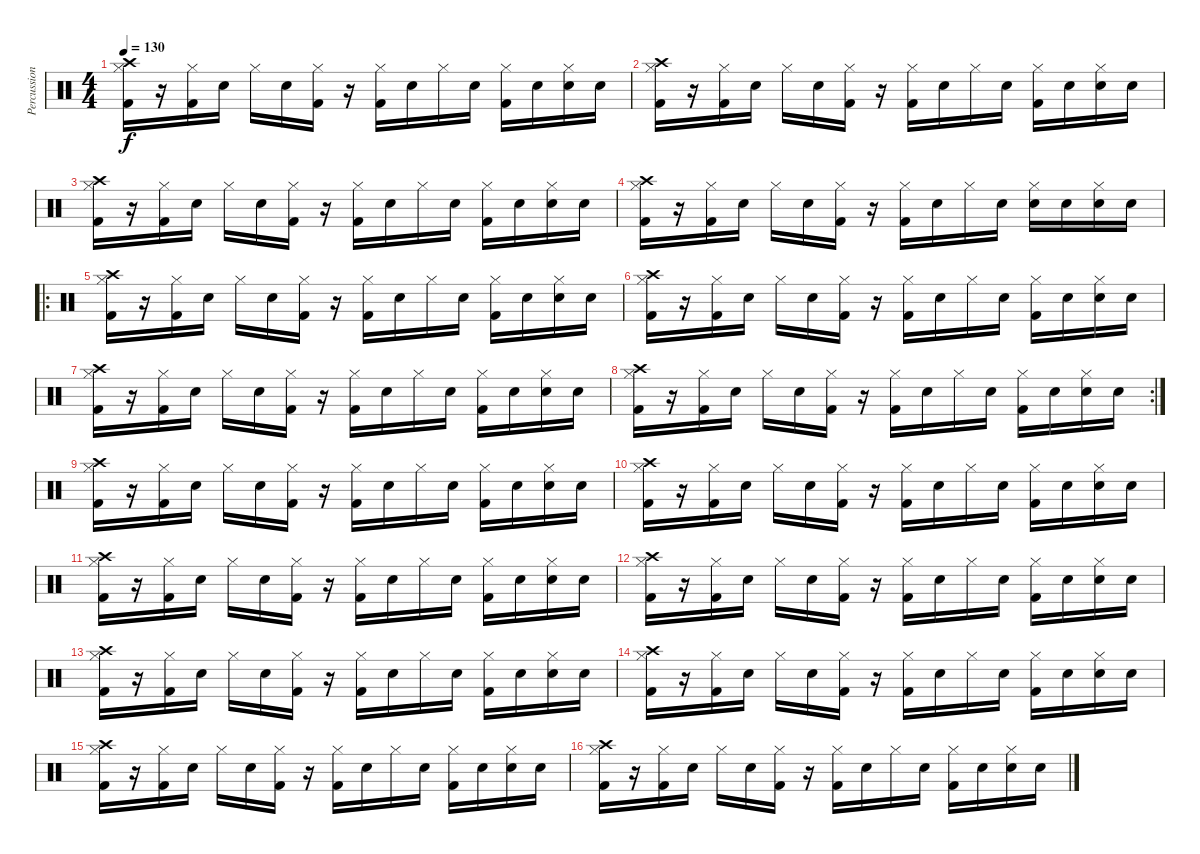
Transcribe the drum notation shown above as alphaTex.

\track ("Percussion" "Percussion") {instrument percussion}
\staff {score}
\articulation defaults
\ts (4 4)
\tempo 130
\clef neutral
\ks c
("Crash high (hit)" "Hi-Hat (closed)" "Kick (hit) 2").16{dy f} r.16 ("Hi-Hat (closed)" "Kick (hit) 2").16 "Snare (hit) 2".16 "Hi-Hat (closed)".16 "Snare (hit) 2".16 ("Hi-Hat (closed)" "Kick (hit) 2").16 r.16 ("Hi-Hat (closed)" "Kick (hit) 2").16 "Snare (hit) 2".16 "Hi-Hat (closed)".16 "Snare (hit) 2".16 ("Hi-Hat (closed)" "Kick (hit) 2").16 "Snare (hit) 2".16 ("Hi-Hat (closed)" "Snare (hit) 2").16 "Snare (hit) 2".16 |
("Crash high (hit)" "Hi-Hat (closed)" "Kick (hit) 2").16 r.16 ("Hi-Hat (closed)" "Kick (hit) 2").16 "Snare (hit) 2".16 "Hi-Hat (closed)".16 "Snare (hit) 2".16 ("Hi-Hat (closed)" "Kick (hit) 2").16 r.16 ("Hi-Hat (closed)" "Kick (hit) 2").16 "Snare (hit) 2".16 "Hi-Hat (closed)".16 "Snare (hit) 2".16 ("Hi-Hat (closed)" "Kick (hit) 2").16 "Snare (hit) 2".16 ("Hi-Hat (closed)" "Snare (hit) 2").16 "Snare (hit) 2".16 |
("Crash high (hit)" "Hi-Hat (closed)" "Kick (hit) 2").16 r.16 ("Hi-Hat (closed)" "Kick (hit) 2").16 "Snare (hit) 2".16 "Hi-Hat (closed)".16 "Snare (hit) 2".16 ("Hi-Hat (closed)" "Kick (hit) 2").16 r.16 ("Hi-Hat (closed)" "Kick (hit) 2").16 "Snare (hit) 2".16 "Hi-Hat (closed)".16 "Snare (hit) 2".16 ("Hi-Hat (closed)" "Kick (hit) 2").16 "Snare (hit) 2".16 ("Hi-Hat (closed)" "Snare (hit) 2").16 "Snare (hit) 2".16 |
("Crash high (hit)" "Hi-Hat (closed)" "Kick (hit) 2").16 r.16 ("Hi-Hat (closed)" "Kick (hit) 2").16 "Snare (hit) 2".16 "Hi-Hat (closed)".16 "Snare (hit) 2".16 ("Hi-Hat (closed)" "Kick (hit) 2").16 r.16 ("Hi-Hat (closed)" "Kick (hit) 2").16 "Snare (hit) 2".16 "Hi-Hat (closed)".16 "Snare (hit) 2".16 ("Hi-Hat (closed)" "Snare (hit) 2").16 "Snare (hit) 2".16 ("Hi-Hat (closed)" "Snare (hit) 2").16 "Snare (hit) 2".16 |
\ro
("Crash high (hit)" "Hi-Hat (closed)" "Kick (hit) 2").16 r.16 ("Hi-Hat (closed)" "Kick (hit) 2").16 "Snare (hit) 2".16 "Hi-Hat (closed)".16 "Snare (hit) 2".16 ("Hi-Hat (closed)" "Kick (hit) 2").16 r.16 ("Hi-Hat (closed)" "Kick (hit) 2").16 "Snare (hit) 2".16 "Hi-Hat (closed)".16 "Snare (hit) 2".16 ("Hi-Hat (closed)" "Kick (hit) 2").16 "Snare (hit) 2".16 ("Hi-Hat (closed)" "Snare (hit) 2").16 "Snare (hit) 2".16 |
("Crash high (hit)" "Hi-Hat (closed)" "Kick (hit) 2").16 r.16 ("Hi-Hat (closed)" "Kick (hit) 2").16 "Snare (hit) 2".16 "Hi-Hat (closed)".16 "Snare (hit) 2".16 ("Hi-Hat (closed)" "Kick (hit) 2").16 r.16 ("Hi-Hat (closed)" "Kick (hit) 2").16 "Snare (hit) 2".16 "Hi-Hat (closed)".16 "Snare (hit) 2".16 ("Hi-Hat (closed)" "Kick (hit) 2").16 "Snare (hit) 2".16 ("Hi-Hat (closed)" "Snare (hit) 2").16 "Snare (hit) 2".16 |
("Crash high (hit)" "Hi-Hat (closed)" "Kick (hit) 2").16 r.16 ("Hi-Hat (closed)" "Kick (hit) 2").16 "Snare (hit) 2".16 "Hi-Hat (closed)".16 "Snare (hit) 2".16 ("Hi-Hat (closed)" "Kick (hit) 2").16 r.16 ("Hi-Hat (closed)" "Kick (hit) 2").16 "Snare (hit) 2".16 "Hi-Hat (closed)".16 "Snare (hit) 2".16 ("Hi-Hat (closed)" "Kick (hit) 2").16 "Snare (hit) 2".16 ("Hi-Hat (closed)" "Snare (hit) 2").16 "Snare (hit) 2".16 |
\rc 2
("Crash high (hit)" "Hi-Hat (closed)" "Kick (hit) 2").16 r.16 ("Hi-Hat (closed)" "Kick (hit) 2").16 "Snare (hit) 2".16 "Hi-Hat (closed)".16 "Snare (hit) 2".16 ("Hi-Hat (closed)" "Kick (hit) 2").16 r.16 ("Hi-Hat (closed)" "Kick (hit) 2").16 "Snare (hit) 2".16 "Hi-Hat (closed)".16 "Snare (hit) 2".16 ("Hi-Hat (closed)" "Kick (hit) 2").16 "Snare (hit) 2".16 ("Hi-Hat (closed)" "Snare (hit) 2").16 "Snare (hit) 2".16 |
("Crash high (hit)" "Hi-Hat (closed)" "Kick (hit) 2").16 r.16 ("Hi-Hat (closed)" "Kick (hit) 2").16 "Snare (hit) 2".16 "Hi-Hat (closed)".16 "Snare (hit) 2".16 ("Hi-Hat (closed)" "Kick (hit) 2").16 r.16 ("Hi-Hat (closed)" "Kick (hit) 2").16 "Snare (hit) 2".16 "Hi-Hat (closed)".16 "Snare (hit) 2".16 ("Hi-Hat (closed)" "Kick (hit) 2").16 "Snare (hit) 2".16 ("Hi-Hat (closed)" "Snare (hit) 2").16 "Snare (hit) 2".16 |
("Crash high (hit)" "Hi-Hat (closed)" "Kick (hit) 2").16 r.16 ("Hi-Hat (closed)" "Kick (hit) 2").16 "Snare (hit) 2".16 "Hi-Hat (closed)".16 "Snare (hit) 2".16 ("Hi-Hat (closed)" "Kick (hit) 2").16 r.16 ("Hi-Hat (closed)" "Kick (hit) 2").16 "Snare (hit) 2".16 "Hi-Hat (closed)".16 "Snare (hit) 2".16 ("Hi-Hat (closed)" "Kick (hit) 2").16 "Snare (hit) 2".16 ("Hi-Hat (closed)" "Snare (hit) 2").16 "Snare (hit) 2".16 |
("Crash high (hit)" "Hi-Hat (closed)" "Kick (hit) 2").16 r.16 ("Hi-Hat (closed)" "Kick (hit) 2").16 "Snare (hit) 2".16 "Hi-Hat (closed)".16 "Snare (hit) 2".16 ("Hi-Hat (closed)" "Kick (hit) 2").16 r.16 ("Hi-Hat (closed)" "Kick (hit) 2").16 "Snare (hit) 2".16 "Hi-Hat (closed)".16 "Snare (hit) 2".16 ("Hi-Hat (closed)" "Kick (hit) 2").16 "Snare (hit) 2".16 ("Hi-Hat (closed)" "Snare (hit) 2").16 "Snare (hit) 2".16 |
("Crash high (hit)" "Hi-Hat (closed)" "Kick (hit) 2").16 r.16 ("Hi-Hat (closed)" "Kick (hit) 2").16 "Snare (hit) 2".16 "Hi-Hat (closed)".16 "Snare (hit) 2".16 ("Hi-Hat (closed)" "Kick (hit) 2").16 r.16 ("Hi-Hat (closed)" "Kick (hit) 2").16 "Snare (hit) 2".16 "Hi-Hat (closed)".16 "Snare (hit) 2".16 ("Hi-Hat (closed)" "Kick (hit) 2").16 "Snare (hit) 2".16 ("Hi-Hat (closed)" "Snare (hit) 2").16 "Snare (hit) 2".16 |
("Crash high (hit)" "Hi-Hat (closed)" "Kick (hit) 2").16 r.16 ("Hi-Hat (closed)" "Kick (hit) 2").16 "Snare (hit) 2".16 "Hi-Hat (closed)".16 "Snare (hit) 2".16 ("Hi-Hat (closed)" "Kick (hit) 2").16 r.16 ("Hi-Hat (closed)" "Kick (hit) 2").16 "Snare (hit) 2".16 "Hi-Hat (closed)".16 "Snare (hit) 2".16 ("Hi-Hat (closed)" "Kick (hit) 2").16 "Snare (hit) 2".16 ("Hi-Hat (closed)" "Snare (hit) 2").16 "Snare (hit) 2".16 |
("Crash high (hit)" "Hi-Hat (closed)" "Kick (hit) 2").16 r.16 ("Hi-Hat (closed)" "Kick (hit) 2").16 "Snare (hit) 2".16 "Hi-Hat (closed)".16 "Snare (hit) 2".16 ("Hi-Hat (closed)" "Kick (hit) 2").16 r.16 ("Hi-Hat (closed)" "Kick (hit) 2").16 "Snare (hit) 2".16 "Hi-Hat (closed)".16 "Snare (hit) 2".16 ("Hi-Hat (closed)" "Kick (hit) 2").16 "Snare (hit) 2".16 ("Hi-Hat (closed)" "Snare (hit) 2").16 "Snare (hit) 2".16 |
("Crash high (hit)" "Hi-Hat (closed)" "Kick (hit) 2").16 r.16 ("Hi-Hat (closed)" "Kick (hit) 2").16 "Snare (hit) 2".16 "Hi-Hat (closed)".16 "Snare (hit) 2".16 ("Hi-Hat (closed)" "Kick (hit) 2").16 r.16 ("Hi-Hat (closed)" "Kick (hit) 2").16 "Snare (hit) 2".16 "Hi-Hat (closed)".16 "Snare (hit) 2".16 ("Hi-Hat (closed)" "Kick (hit) 2").16 "Snare (hit) 2".16 ("Hi-Hat (closed)" "Snare (hit) 2").16 "Snare (hit) 2".16 |
("Crash high (hit)" "Hi-Hat (closed)" "Kick (hit) 2").16 r.16 ("Hi-Hat (closed)" "Kick (hit) 2").16 "Snare (hit) 2".16 "Hi-Hat (closed)".16 "Snare (hit) 2".16 ("Hi-Hat (closed)" "Kick (hit) 2").16 r.16 ("Hi-Hat (closed)" "Kick (hit) 2").16 "Snare (hit) 2".16 "Hi-Hat (closed)".16 "Snare (hit) 2".16 ("Hi-Hat (closed)" "Kick (hit) 2").16 "Snare (hit) 2".16 ("Hi-Hat (closed)" "Snare (hit) 2").16 "Snare (hit) 2".16
